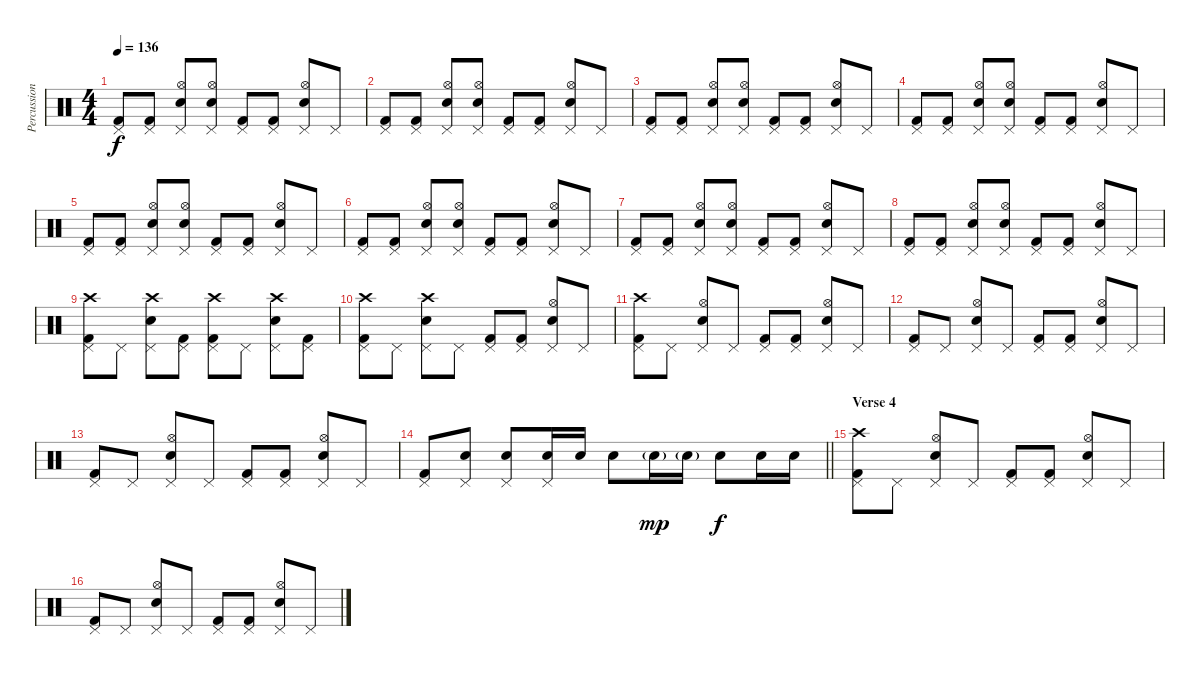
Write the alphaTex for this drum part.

\track ("Percussion" "Percussion") {instrument percussion}
\staff {score}
\articulation defaults
\ts (4 4)
\tempo 136
\clef neutral
\ks c
("Pedal Hi-Hat (hit)" "Kick (hit) 2").8{dy f} ("Pedal Hi-Hat (hit)" "Kick (hit) 2").8 ("Hi-Hat (open)" "Pedal Hi-Hat (hit)" "Snare (hit) 2").8 ("Hi-Hat (open)" "Pedal Hi-Hat (hit)" "Snare (hit) 2").8 ("Pedal Hi-Hat (hit)" "Kick (hit) 2").8 ("Pedal Hi-Hat (hit)" "Kick (hit) 2").8 ("Hi-Hat (open)" "Pedal Hi-Hat (hit)" "Snare (hit) 2").8 "Pedal Hi-Hat (hit)".8 |
("Pedal Hi-Hat (hit)" "Kick (hit) 2").8 ("Pedal Hi-Hat (hit)" "Kick (hit) 2").8 ("Hi-Hat (open)" "Pedal Hi-Hat (hit)" "Snare (hit) 2").8 ("Hi-Hat (open)" "Pedal Hi-Hat (hit)" "Snare (hit) 2").8 ("Pedal Hi-Hat (hit)" "Kick (hit) 2").8 ("Pedal Hi-Hat (hit)" "Kick (hit) 2").8 ("Hi-Hat (open)" "Pedal Hi-Hat (hit)" "Snare (hit) 2").8 "Pedal Hi-Hat (hit)".8 |
("Pedal Hi-Hat (hit)" "Kick (hit) 2").8 ("Pedal Hi-Hat (hit)" "Kick (hit) 2").8 ("Hi-Hat (open)" "Pedal Hi-Hat (hit)" "Snare (hit) 2").8 ("Hi-Hat (open)" "Pedal Hi-Hat (hit)" "Snare (hit) 2").8 ("Pedal Hi-Hat (hit)" "Kick (hit) 2").8 ("Pedal Hi-Hat (hit)" "Kick (hit) 2").8 ("Hi-Hat (open)" "Pedal Hi-Hat (hit)" "Snare (hit) 2").8 "Pedal Hi-Hat (hit)".8 |
("Pedal Hi-Hat (hit)" "Kick (hit) 2").8 ("Pedal Hi-Hat (hit)" "Kick (hit) 2").8 ("Hi-Hat (open)" "Pedal Hi-Hat (hit)" "Snare (hit) 2").8 ("Hi-Hat (open)" "Pedal Hi-Hat (hit)" "Snare (hit) 2").8 ("Pedal Hi-Hat (hit)" "Kick (hit) 2").8 ("Pedal Hi-Hat (hit)" "Kick (hit) 2").8 ("Hi-Hat (open)" "Pedal Hi-Hat (hit)" "Snare (hit) 2").8 "Pedal Hi-Hat (hit)".8 |
("Pedal Hi-Hat (hit)" "Kick (hit) 2").8 ("Pedal Hi-Hat (hit)" "Kick (hit) 2").8 ("Hi-Hat (open)" "Pedal Hi-Hat (hit)" "Snare (hit) 2").8 ("Hi-Hat (open)" "Pedal Hi-Hat (hit)" "Snare (hit) 2").8 ("Pedal Hi-Hat (hit)" "Kick (hit) 2").8 ("Pedal Hi-Hat (hit)" "Kick (hit) 2").8 ("Hi-Hat (open)" "Pedal Hi-Hat (hit)" "Snare (hit) 2").8 "Pedal Hi-Hat (hit)".8 |
("Pedal Hi-Hat (hit)" "Kick (hit) 2").8 ("Pedal Hi-Hat (hit)" "Kick (hit) 2").8 ("Hi-Hat (open)" "Pedal Hi-Hat (hit)" "Snare (hit) 2").8 ("Hi-Hat (open)" "Pedal Hi-Hat (hit)" "Snare (hit) 2").8 ("Pedal Hi-Hat (hit)" "Kick (hit) 2").8 ("Pedal Hi-Hat (hit)" "Kick (hit) 2").8 ("Hi-Hat (open)" "Pedal Hi-Hat (hit)" "Snare (hit) 2").8 "Pedal Hi-Hat (hit)".8 |
("Pedal Hi-Hat (hit)" "Kick (hit) 2").8 ("Pedal Hi-Hat (hit)" "Kick (hit) 2").8 ("Hi-Hat (open)" "Pedal Hi-Hat (hit)" "Snare (hit) 2").8 ("Hi-Hat (open)" "Pedal Hi-Hat (hit)" "Snare (hit) 2").8 ("Pedal Hi-Hat (hit)" "Kick (hit) 2").8 ("Pedal Hi-Hat (hit)" "Kick (hit) 2").8 ("Hi-Hat (open)" "Pedal Hi-Hat (hit)" "Snare (hit) 2").8 "Pedal Hi-Hat (hit)".8 |
("Pedal Hi-Hat (hit)" "Kick (hit) 2").8 ("Pedal Hi-Hat (hit)" "Kick (hit) 2").8 ("Hi-Hat (open)" "Pedal Hi-Hat (hit)" "Snare (hit) 2").8 ("Hi-Hat (open)" "Pedal Hi-Hat (hit)" "Snare (hit) 2").8 ("Pedal Hi-Hat (hit)" "Kick (hit) 2").8 ("Pedal Hi-Hat (hit)" "Kick (hit) 2").8 ("Hi-Hat (open)" "Pedal Hi-Hat (hit)" "Snare (hit) 2").8 "Pedal Hi-Hat (hit)".8 |
("Crash high (hit)" "Pedal Hi-Hat (hit)" "Kick (hit) 2").8 "Pedal Hi-Hat (hit)".8 ("Crash high (hit)" "Pedal Hi-Hat (hit)" "Snare (hit) 2").8 ("Pedal Hi-Hat (hit)" "Kick (hit) 2").8 ("Crash high (hit)" "Pedal Hi-Hat (hit)" "Kick (hit) 2").8 "Pedal Hi-Hat (hit)".8 ("Crash high (hit)" "Pedal Hi-Hat (hit)" "Snare (hit) 2").8 ("Pedal Hi-Hat (hit)" "Kick (hit) 2").8 |
("Crash high (hit)" "Pedal Hi-Hat (hit)" "Kick (hit) 2").8 "Pedal Hi-Hat (hit)".8 ("Crash high (hit)" "Pedal Hi-Hat (hit)" "Snare (hit) 2").8 "Pedal Hi-Hat (hit)".8 ("Pedal Hi-Hat (hit)" "Kick (hit) 2").8 ("Pedal Hi-Hat (hit)" "Kick (hit) 2").8 ("Hi-Hat (open)" "Pedal Hi-Hat (hit)" "Snare (hit) 2").8 "Pedal Hi-Hat (hit)".8 |
("Crash high (hit)" "Pedal Hi-Hat (hit)" "Kick (hit) 2").8 "Pedal Hi-Hat (hit)".8 ("Hi-Hat (open)" "Pedal Hi-Hat (hit)" "Snare (hit) 2").8 "Pedal Hi-Hat (hit)".8 ("Pedal Hi-Hat (hit)" "Kick (hit) 2").8 ("Pedal Hi-Hat (hit)" "Kick (hit) 2").8 ("Hi-Hat (open)" "Pedal Hi-Hat (hit)" "Snare (hit) 2").8 "Pedal Hi-Hat (hit)".8 |
("Pedal Hi-Hat (hit)" "Kick (hit) 2").8 "Pedal Hi-Hat (hit)".8 ("Hi-Hat (open)" "Pedal Hi-Hat (hit)" "Snare (hit) 2").8 "Pedal Hi-Hat (hit)".8 ("Pedal Hi-Hat (hit)" "Kick (hit) 2").8 ("Pedal Hi-Hat (hit)" "Kick (hit) 2").8 ("Hi-Hat (open)" "Pedal Hi-Hat (hit)" "Snare (hit) 2").8 "Pedal Hi-Hat (hit)".8 |
("Pedal Hi-Hat (hit)" "Kick (hit) 2").8 "Pedal Hi-Hat (hit)".8 ("Hi-Hat (open)" "Pedal Hi-Hat (hit)" "Snare (hit) 2").8 "Pedal Hi-Hat (hit)".8 ("Pedal Hi-Hat (hit)" "Kick (hit) 2").8 ("Pedal Hi-Hat (hit)" "Kick (hit) 2").8 ("Hi-Hat (open)" "Pedal Hi-Hat (hit)" "Snare (hit) 2").8 "Pedal Hi-Hat (hit)".8 |
\barLineRight lightlight
("Pedal Hi-Hat (hit)" "Kick (hit) 2").8 ("Pedal Hi-Hat (hit)" "Snare (hit) 2").8 ("Pedal Hi-Hat (hit)" "Snare (hit) 2").8 ("Pedal Hi-Hat (hit)" "Snare (hit) 2").16 "Snare (hit) 2".16 "Snare (hit) 2".8 "Snare (hit) 2"{g}.16{dy mp} "Snare (hit) 2"{g}.16 "Snare (hit) 2".8{dy f} "Snare (hit) 2".16 "Snare (hit) 2".16 |
\section ("" "Verse 4")
("Crash high (hit)" "Pedal Hi-Hat (hit)" "Kick (hit) 2").8 "Pedal Hi-Hat (hit)".8 ("Hi-Hat (open)" "Pedal Hi-Hat (hit)" "Snare (hit) 2").8 "Pedal Hi-Hat (hit)".8 ("Pedal Hi-Hat (hit)" "Kick (hit) 2").8 ("Pedal Hi-Hat (hit)" "Kick (hit) 2").8 ("Hi-Hat (open)" "Pedal Hi-Hat (hit)" "Snare (hit) 2").8 "Pedal Hi-Hat (hit)".8 |
("Pedal Hi-Hat (hit)" "Kick (hit) 2").8 "Pedal Hi-Hat (hit)".8 ("Hi-Hat (open)" "Pedal Hi-Hat (hit)" "Snare (hit) 2").8 "Pedal Hi-Hat (hit)".8 ("Pedal Hi-Hat (hit)" "Kick (hit) 2").8 ("Pedal Hi-Hat (hit)" "Kick (hit) 2").8 ("Hi-Hat (open)" "Pedal Hi-Hat (hit)" "Snare (hit) 2").8 "Pedal Hi-Hat (hit)".8
